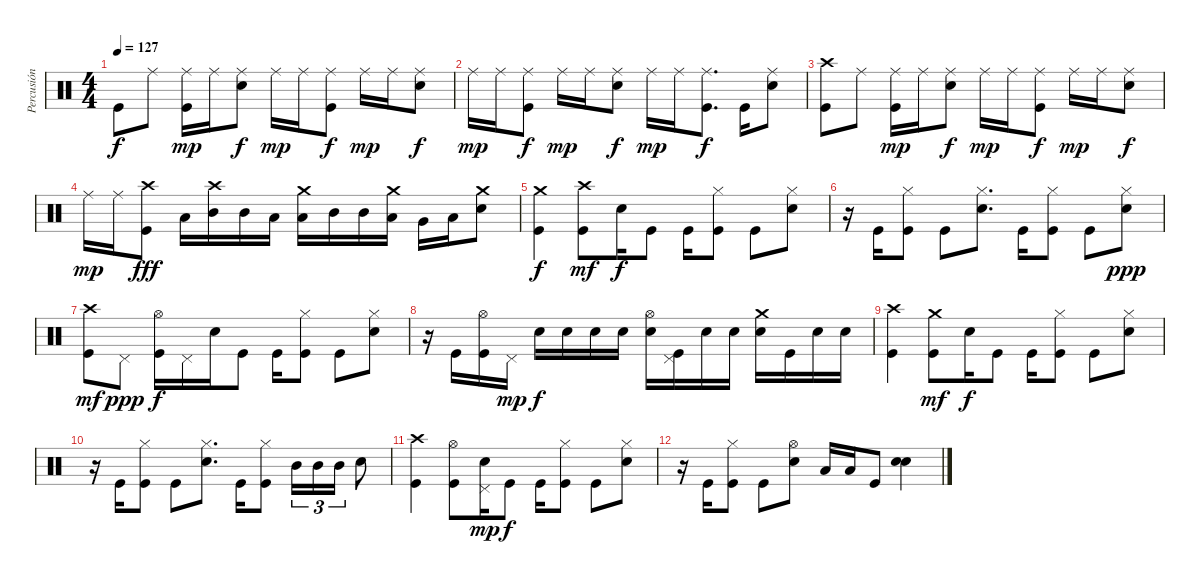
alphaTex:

\track ("Percusión" "Percusión") {instrument percussion}
\staff {score}
\articulation defaults
\ts (4 4)
\tempo 127
\clef neutral
\ks c "Kick (hit)".8{dy f} "Ride (middle)".8
("Kick (hit)" "Ride (middle)").16{dy mp} "Ride (middle)".16 ("Snare (hit) 2" "Ride (middle)").8{dy f} "Ride (middle)".16{dy mp} "Ride (middle)".16 ("Kick (hit)" "Ride (middle)").8{dy f} "Ride (middle)".16{dy mp} "Ride (middle)".16 ("Snare (hit) 2" "Ride (middle)").8{dy f} |
"Ride (middle)".16{dy mp} "Ride (middle)".16 ("Kick (hit)" "Ride (middle)").8{dy f} "Ride (middle)".16{dy mp} "Ride (middle)".16 ("Snare (hit) 2" "Ride (middle)").8{dy f} "Ride (middle)".16{dy mp} "Ride (middle)".16 ("Kick (hit)" "Ride (middle)").8{d dy f} "Kick (hit)".16 ("Snare (hit) 2" "Ride (middle)").8 |
("Kick (hit)" "Crash high (hit)").8 "Ride (middle)".8 ("Kick (hit)" "Ride (middle)").16{dy mp} "Ride (middle)".16 ("Snare (hit) 2" "Ride (middle)").8{dy f} "Ride (middle)".16{dy mp} "Ride (middle)".16 ("Kick (hit)" "Ride (middle)").8{dy f} "Ride (middle)".16{dy mp} "Ride (middle)".16 ("Snare (hit) 2" "Ride (middle)").8{dy f} |
"Ride (middle)".16{dy mp} "Ride (middle)".16 ("Kick (hit)" "Crash high (hit)").8{dy fff} "Low Tom (hit)".16 ("Mid Tom (hit)" "Crash high (hit)").16 "Mid Tom (hit)".16 "Low Tom (hit)".16 ("Low Tom (hit)" "Crash medium (hit)").16 "Mid Tom (hit)".16 "Mid Tom (hit)".16 ("Low Tom (hit)" "Crash medium (hit)").16 "Very Low Tom (hit)".16 "Low Tom (hit)".16 ("Snare (hit) 2" "Crash medium (hit)").8 |
("Kick (hit)" "Crash medium (hit)").4{dy f} ("Kick (hit)" "Crash high (hit)").8{dy mf} "Snare (hit) 2".16{dy f} "Kick (hit)".8 "Kick (hit)".16 ("Kick (hit)" "Hi-Hat (closed)").8 "Kick (hit)".8 ("Snare (hit) 2" "Hi-Hat (closed)").8 |
r.16 "Kick (hit)".16 ("Kick (hit)" "Hi-Hat (closed)").8 "Kick (hit)".8 ("Snare (hit) 2" "Hi-Hat (closed)").8{d} "Kick (hit)".16 ("Kick (hit)" "Hi-Hat (closed)").8 "Kick (hit)".8 ("Snare (hit) 2" "Hi-Hat (closed)").8{dy ppp} |
("Kick (hit)" "Crash high (hit)").8{dy mf} "Pedal Hi-Hat (hit)".8{dy ppp} ("Kick (hit)" "Hi-Hat (open)").16{dy f} "Pedal Hi-Hat (hit)".16 "Snare (hit) 2".16 "Kick (hit)".8 "Kick (hit)".16 ("Kick (hit)" "Hi-Hat (closed)").8 "Kick (hit)".8 ("Snare (hit) 2" "Hi-Hat (closed)").8 |
r.16 "Kick (hit)".16 ("Kick (hit)" "Hi-Hat (open)").16 "Pedal Hi-Hat (hit)".16{dy mp} "Snare (hit) 2".16{dy f} "Snare (hit) 2".16 "Snare (hit) 2".16 "Snare (hit) 2".16 ("Snare (hit) 2" "Hi-Hat (open)").16 ("Kick (hit)" "Pedal Hi-Hat (hit)").16 "Snare (hit) 2".16 "Snare (hit) 2".16 ("Snare (hit) 2" "Crash medium (hit)").16 "Kick (hit)".16 "Snare (hit) 2".16 "Snare (hit) 2".16 |
("Kick (hit)" "Crash high (hit)").4 ("Kick (hit)" "Crash medium (hit)").8{dy mf} "Snare (hit) 2".16{dy f} "Kick (hit)".8 "Kick (hit)".16 ("Kick (hit)" "Hi-Hat (closed)").8 "Kick (hit)".8 ("Snare (hit) 2" "Hi-Hat (closed)").8 |
r.16 "Kick (hit)".16 ("Kick (hit)" "Hi-Hat (closed)").8 "Kick (hit)".8 ("Snare (hit) 2" "Hi-Hat (closed)").8{d} "Kick (hit)".16 ("Kick (hit)" "Hi-Hat (closed)").8 "Mid Tom (hit)".16{tu (3 2)} "Mid Tom (hit)".16{tu (3 2)} "Mid Tom (hit)".16{tu (3 2)} "Snare (hit) 2".8 |
("Kick (hit)" "Crash high (hit)").4 ("Kick (hit)" "Hi-Hat (open)").8 ("Snare (hit) 2" "Pedal Hi-Hat (hit)").16{dy mp} "Kick (hit)".8{dy f} "Kick (hit)".16 ("Kick (hit)" "Hi-Hat (closed)").8 "Kick (hit)".8 ("Snare (hit) 2" "Hi-Hat (closed)").8 |
r.16 "Kick (hit)".16 ("Kick (hit)" "Hi-Hat (closed)").8 "Kick (hit)".8 ("Snare (hit) 2" "Hi-Hat (open)").8 "Low Tom (hit)".16 "Low Tom (hit)".16 "Kick (hit)".8 ("Snare (hit) 2" "Snare (hit) 2").4
